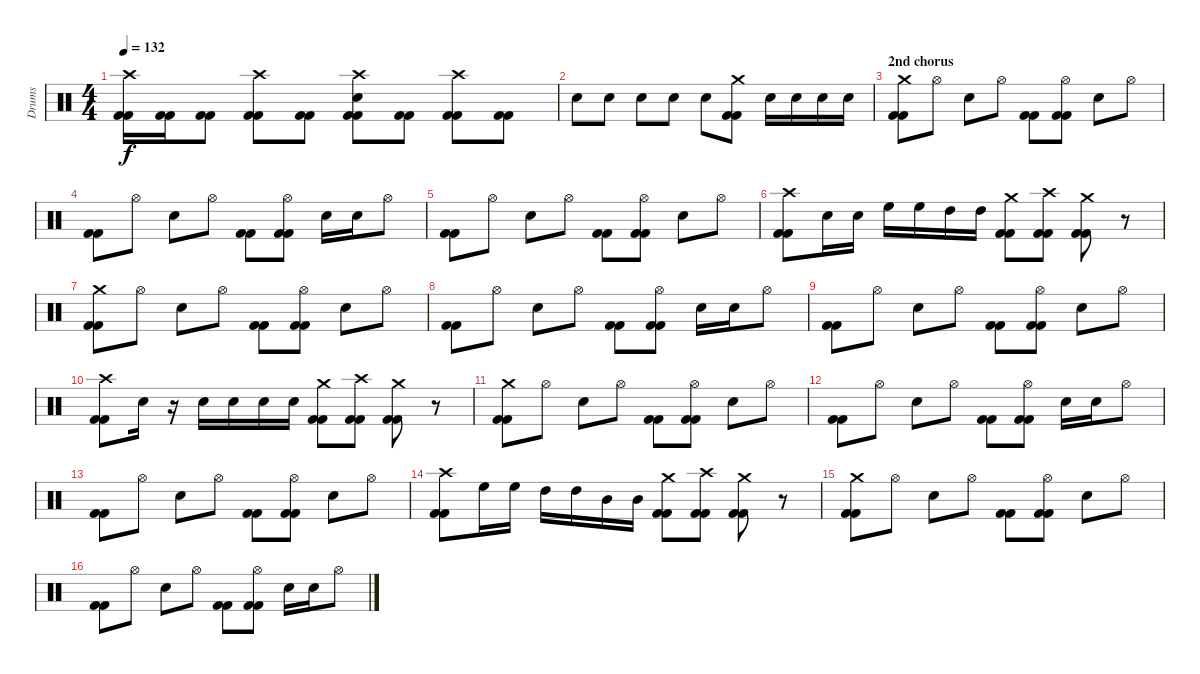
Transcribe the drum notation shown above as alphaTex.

\track ("Drums" "Drums") {instrument percussion}
\staff {score}
\articulation defaults
\ts (4 4)
\tempo 132
\clef neutral
\ks c
("Crash high (hit)" "Kick (hit) 2" "Kick (hit) 2").16{dy f} ("Kick (hit) 2" "Kick (hit) 2").16 ("Kick (hit) 2" "Kick (hit) 2").8 ("Crash high (hit)" "Kick (hit) 2" "Kick (hit) 2").8 ("Kick (hit) 2" "Kick (hit) 2").8 ("Crash high (hit)" "Electric Snare (hit)" "Kick (hit) 2" "Kick (hit) 2").8 ("Kick (hit) 2" "Kick (hit) 2").8 ("Crash high (hit)" "Kick (hit) 2" "Kick (hit) 2").8 ("Kick (hit) 2" "Kick (hit) 2").8 |
"Electric Snare (hit)".8 "Electric Snare (hit)".8 "Electric Snare (hit)".8 "Electric Snare (hit)".8 "Electric Snare (hit)".8 ("Crash medium (hit)" "Kick (hit) 2" "Kick (hit) 2").8 "Electric Snare (hit)".16 "Electric Snare (hit)".16 "Electric Snare (hit)".16 "Electric Snare (hit)".16 |
\section ("" "2nd chorus")
("Crash medium (hit)" "Kick (hit) 2" "Kick (hit) 2").8 "Hi-Hat (open)".8 "Electric Snare (hit)".8 "Hi-Hat (open)".8 ("Kick (hit) 2" "Kick (hit) 2").8 ("Hi-Hat (open)" "Kick (hit) 2" "Kick (hit) 2").8 "Electric Snare (hit)".8 "Hi-Hat (open)".8 |
("Kick (hit) 2" "Kick (hit) 2").8 "Hi-Hat (open)".8 "Electric Snare (hit)".8 "Hi-Hat (open)".8 ("Kick (hit) 2" "Kick (hit) 2").8 ("Hi-Hat (open)" "Kick (hit) 2" "Kick (hit) 2").8 "Electric Snare (hit)".16 "Electric Snare (hit)".16 "Hi-Hat (open)".8 |
("Kick (hit) 2" "Kick (hit) 2").8 "Hi-Hat (open)".8 "Electric Snare (hit)".8 "Hi-Hat (open)".8 ("Kick (hit) 2" "Kick (hit) 2").8 ("Hi-Hat (open)" "Kick (hit) 2" "Kick (hit) 2").8 "Electric Snare (hit)".8 "Hi-Hat (open)".8 |
("Crash high (hit)" "Kick (hit) 2" "Kick (hit) 2").8 "Electric Snare (hit)".16 "Electric Snare (hit)".16 "High Floor Tom (hit)".16 "High Floor Tom (hit)".16 "High Tom (hit)".16 "High Tom (hit)".16 ("Crash medium (hit)" "Kick (hit) 2" "Kick (hit) 2").8 ("Crash high (hit)" "Kick (hit) 2" "Kick (hit) 2").8 ("Crash medium (hit)" "Kick (hit) 2" "Kick (hit) 2").8 r.8 |
("Crash medium (hit)" "Kick (hit) 2" "Kick (hit) 2").8 "Hi-Hat (open)".8 "Electric Snare (hit)".8 "Hi-Hat (open)".8 ("Kick (hit) 2" "Kick (hit) 2").8 ("Hi-Hat (open)" "Kick (hit) 2" "Kick (hit) 2").8 "Electric Snare (hit)".8 "Hi-Hat (open)".8 |
("Kick (hit) 2" "Kick (hit) 2").8 "Hi-Hat (open)".8 "Electric Snare (hit)".8 "Hi-Hat (open)".8 ("Kick (hit) 2" "Kick (hit) 2").8 ("Hi-Hat (open)" "Kick (hit) 2" "Kick (hit) 2").8 "Electric Snare (hit)".16 "Electric Snare (hit)".16 "Hi-Hat (open)".8 |
("Kick (hit) 2" "Kick (hit) 2").8 "Hi-Hat (open)".8 "Electric Snare (hit)".8 "Hi-Hat (open)".8 ("Kick (hit) 2" "Kick (hit) 2").8 ("Hi-Hat (open)" "Kick (hit) 2" "Kick (hit) 2").8 "Electric Snare (hit)".8 "Hi-Hat (open)".8 |
("Crash high (hit)" "Kick (hit) 2" "Kick (hit) 2").8 "Electric Snare (hit)".16 r.16 "Electric Snare (hit)".16 "Electric Snare (hit)".16 "Electric Snare (hit)".16 "Electric Snare (hit)".16 ("Crash medium (hit)" "Kick (hit) 2" "Kick (hit) 2").8 ("Crash high (hit)" "Kick (hit) 2" "Kick (hit) 2").8 ("Crash medium (hit)" "Kick (hit) 2" "Kick (hit) 2").8 r.8 |
("Crash medium (hit)" "Kick (hit) 2" "Kick (hit) 2").8 "Hi-Hat (open)".8 "Electric Snare (hit)".8 "Hi-Hat (open)".8 ("Kick (hit) 2" "Kick (hit) 2").8 ("Hi-Hat (open)" "Kick (hit) 2" "Kick (hit) 2").8 "Electric Snare (hit)".8 "Hi-Hat (open)".8 |
("Kick (hit) 2" "Kick (hit) 2").8 "Hi-Hat (open)".8 "Electric Snare (hit)".8 "Hi-Hat (open)".8 ("Kick (hit) 2" "Kick (hit) 2").8 ("Hi-Hat (open)" "Kick (hit) 2" "Kick (hit) 2").8 "Electric Snare (hit)".16 "Electric Snare (hit)".16 "Hi-Hat (open)".8 |
("Kick (hit) 2" "Kick (hit) 2").8 "Hi-Hat (open)".8 "Electric Snare (hit)".8 "Hi-Hat (open)".8 ("Kick (hit) 2" "Kick (hit) 2").8 ("Hi-Hat (open)" "Kick (hit) 2" "Kick (hit) 2").8 "Electric Snare (hit)".8 "Hi-Hat (open)".8 |
("Crash high (hit)" "Kick (hit) 2" "Kick (hit) 2").8 "High Floor Tom (hit)".16 "High Floor Tom (hit)".16 "High Tom (hit)".16 "High Tom (hit)".16 "Mid Tom (hit)".16 "Mid Tom (hit)".16 ("Crash medium (hit)" "Kick (hit) 2" "Kick (hit) 2").8 ("Crash high (hit)" "Kick (hit) 2" "Kick (hit) 2").8 ("Crash medium (hit)" "Kick (hit) 2" "Kick (hit) 2").8 r.8 |
("Crash medium (hit)" "Kick (hit) 2" "Kick (hit) 2").8 "Hi-Hat (open)".8 "Electric Snare (hit)".8 "Hi-Hat (open)".8 ("Kick (hit) 2" "Kick (hit) 2").8 ("Hi-Hat (open)" "Kick (hit) 2" "Kick (hit) 2").8 "Electric Snare (hit)".8 "Hi-Hat (open)".8 |
("Kick (hit) 2" "Kick (hit) 2").8 "Hi-Hat (open)".8 "Electric Snare (hit)".8 "Hi-Hat (open)".8 ("Kick (hit) 2" "Kick (hit) 2").8 ("Hi-Hat (open)" "Kick (hit) 2" "Kick (hit) 2").8 "Electric Snare (hit)".16 "Electric Snare (hit)".16 "Hi-Hat (open)".8
